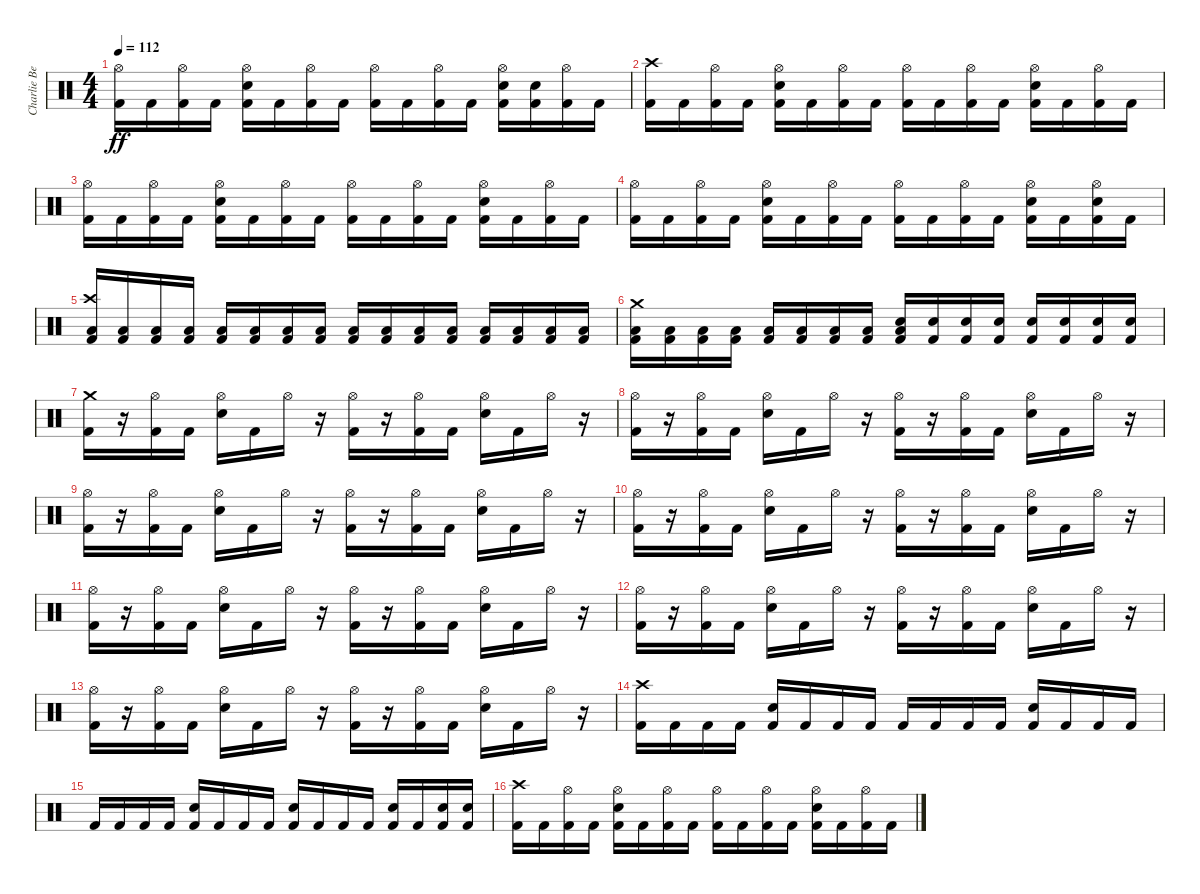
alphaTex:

\track ("Charlie Benante" "Charlie Be") {instrument percussion}
\staff {score}
\articulation defaults
\ts (4 4)
\tempo 112
\clef neutral
\ks c
("Hi-Hat (open)" "Kick (hit) 2").16{dy ff} "Kick (hit) 2".16 ("Hi-Hat (open)" "Kick (hit) 2").16 "Kick (hit) 2".16 ("Hi-Hat (open)" "Snare (hit) 2" "Kick (hit) 2").16 "Kick (hit) 2".16 ("Hi-Hat (open)" "Kick (hit) 2").16 "Kick (hit) 2".16 ("Hi-Hat (open)" "Kick (hit) 2").16 "Kick (hit) 2".16 ("Hi-Hat (open)" "Kick (hit) 2").16 "Kick (hit) 2".16 ("Hi-Hat (open)" "Snare (hit) 2" "Kick (hit) 2").16 ("Snare (hit) 2" "Kick (hit) 2").16 ("Hi-Hat (open)" "Kick (hit) 2").16 "Kick (hit) 2".16 |
("Crash high (hit)" "Kick (hit) 2").16 "Kick (hit) 2".16 ("Hi-Hat (open)" "Kick (hit) 2").16 "Kick (hit) 2".16 ("Hi-Hat (open)" "Snare (hit) 2" "Kick (hit) 2").16 "Kick (hit) 2".16 ("Hi-Hat (open)" "Kick (hit) 2").16 "Kick (hit) 2".16 ("Hi-Hat (open)" "Kick (hit) 2").16 "Kick (hit) 2".16 ("Hi-Hat (open)" "Kick (hit) 2").16 "Kick (hit) 2".16 ("Hi-Hat (open)" "Snare (hit) 2" "Kick (hit) 2").16 "Kick (hit) 2".16 ("Hi-Hat (open)" "Kick (hit) 2").16 "Kick (hit) 2".16 |
("Hi-Hat (open)" "Kick (hit) 2").16 "Kick (hit) 2".16 ("Hi-Hat (open)" "Kick (hit) 2").16 "Kick (hit) 2".16 ("Hi-Hat (open)" "Snare (hit) 2" "Kick (hit) 2").16 "Kick (hit) 2".16 ("Hi-Hat (open)" "Kick (hit) 2").16 "Kick (hit) 2".16 ("Hi-Hat (open)" "Kick (hit) 2").16 "Kick (hit) 2".16 ("Hi-Hat (open)" "Kick (hit) 2").16 "Kick (hit) 2".16 ("Hi-Hat (open)" "Snare (hit) 2" "Kick (hit) 2").16 "Kick (hit) 2".16 ("Hi-Hat (open)" "Kick (hit) 2").16 "Kick (hit) 2".16 |
("Hi-Hat (open)" "Kick (hit) 2").16 "Kick (hit) 2".16 ("Hi-Hat (open)" "Kick (hit) 2").16 "Kick (hit) 2".16 ("Hi-Hat (open)" "Snare (hit) 2" "Kick (hit) 2").16 "Kick (hit) 2".16 ("Hi-Hat (open)" "Kick (hit) 2").16 "Kick (hit) 2".16 ("Hi-Hat (open)" "Kick (hit) 2").16 "Kick (hit) 2".16 ("Hi-Hat (open)" "Kick (hit) 2").16 "Kick (hit) 2".16 ("Hi-Hat (open)" "Snare (hit) 2" "Kick (hit) 2").16 "Kick (hit) 2".16 ("Hi-Hat (open)" "Snare (hit) 2" "Kick (hit) 2").16 "Kick (hit) 2".16 |
("Crash high (hit)" "Kick (hit) 2" "Low Floor Tom (hit)").16 ("Kick (hit) 2" "Low Floor Tom (hit)").16 ("Kick (hit) 2" "Low Floor Tom (hit)").16 ("Kick (hit) 2" "Low Floor Tom (hit)").16 ("Kick (hit) 2" "Low Floor Tom (hit)").16 ("Kick (hit) 2" "Low Floor Tom (hit)").16 ("Kick (hit) 2" "Low Floor Tom (hit)").16 ("Kick (hit) 2" "Low Floor Tom (hit)").16 ("Kick (hit) 2" "Low Floor Tom (hit)").16 ("Kick (hit) 2" "Low Floor Tom (hit)").16 ("Kick (hit) 2" "Low Floor Tom (hit)").16 ("Kick (hit) 2" "Low Floor Tom (hit)").16 ("Kick (hit) 2" "Low Floor Tom (hit)").16 ("Kick (hit) 2" "Low Floor Tom (hit)").16 ("Kick (hit) 2" "Low Floor Tom (hit)").16 ("Kick (hit) 2" "Low Floor Tom (hit)").16 |
("Crash medium (hit)" "Kick (hit) 2" "Low Floor Tom (hit)").16 ("Kick (hit) 2" "Low Floor Tom (hit)").16 ("Kick (hit) 2" "Low Floor Tom (hit)").16 ("Kick (hit) 2" "Low Floor Tom (hit)").16 ("Kick (hit) 2" "Low Floor Tom (hit)").16 ("Kick (hit) 2" "Low Floor Tom (hit)").16 ("Kick (hit) 2" "Low Floor Tom (hit)").16 ("Kick (hit) 2" "Low Floor Tom (hit)").16 ("Snare (hit) 2" "Kick (hit) 2" "Low Floor Tom (hit)").16 ("Snare (hit) 2" "Kick (hit) 2").16 ("Snare (hit) 2" "Kick (hit) 2").16 ("Snare (hit) 2" "Kick (hit) 2").16 ("Snare (hit) 2" "Kick (hit) 2").16 ("Snare (hit) 2" "Kick (hit) 2").16 ("Snare (hit) 2" "Kick (hit) 2").16 ("Snare (hit) 2" "Kick (hit) 2").16 |
("Crash medium (hit)" "Kick (hit) 2").16 r.16 ("Hi-Hat (open)" "Kick (hit) 2").16 "Kick (hit) 2".16 ("Hi-Hat (open)" "Snare (hit) 2").16 "Kick (hit) 2".16 "Hi-Hat (open)".16 r.16 ("Hi-Hat (open)" "Kick (hit) 2").16 r.16 ("Hi-Hat (open)" "Kick (hit) 2").16 "Kick (hit) 2".16 ("Hi-Hat (open)" "Snare (hit) 2").16 "Kick (hit) 2".16 "Hi-Hat (open)".16 r.16 |
("Hi-Hat (open)" "Kick (hit) 2").16 r.16 ("Hi-Hat (open)" "Kick (hit) 2").16 "Kick (hit) 2".16 ("Hi-Hat (open)" "Snare (hit) 2").16 "Kick (hit) 2".16 "Hi-Hat (open)".16 r.16 ("Hi-Hat (open)" "Kick (hit) 2").16 r.16 ("Hi-Hat (open)" "Kick (hit) 2").16 "Kick (hit) 2".16 ("Hi-Hat (open)" "Snare (hit) 2").16 "Kick (hit) 2".16 "Hi-Hat (open)".16 r.16 |
("Hi-Hat (open)" "Kick (hit) 2").16 r.16 ("Hi-Hat (open)" "Kick (hit) 2").16 "Kick (hit) 2".16 ("Hi-Hat (open)" "Snare (hit) 2").16 "Kick (hit) 2".16 "Hi-Hat (open)".16 r.16 ("Hi-Hat (open)" "Kick (hit) 2").16 r.16 ("Hi-Hat (open)" "Kick (hit) 2").16 "Kick (hit) 2".16 ("Hi-Hat (open)" "Snare (hit) 2").16 "Kick (hit) 2".16 "Hi-Hat (open)".16 r.16 |
("Hi-Hat (open)" "Kick (hit) 2").16 r.16 ("Hi-Hat (open)" "Kick (hit) 2").16 "Kick (hit) 2".16 ("Hi-Hat (open)" "Snare (hit) 2").16 "Kick (hit) 2".16 "Hi-Hat (open)".16 r.16 ("Hi-Hat (open)" "Kick (hit) 2").16 r.16 ("Hi-Hat (open)" "Kick (hit) 2").16 "Kick (hit) 2".16 ("Hi-Hat (open)" "Snare (hit) 2").16 "Kick (hit) 2".16 "Hi-Hat (open)".16 r.16 |
("Hi-Hat (open)" "Kick (hit) 2").16 r.16 ("Hi-Hat (open)" "Kick (hit) 2").16 "Kick (hit) 2".16 ("Hi-Hat (open)" "Snare (hit) 2").16 "Kick (hit) 2".16 "Hi-Hat (open)".16 r.16 ("Hi-Hat (open)" "Kick (hit) 2").16 r.16 ("Hi-Hat (open)" "Kick (hit) 2").16 "Kick (hit) 2".16 ("Hi-Hat (open)" "Snare (hit) 2").16 "Kick (hit) 2".16 "Hi-Hat (open)".16 r.16 |
("Hi-Hat (open)" "Kick (hit) 2").16 r.16 ("Hi-Hat (open)" "Kick (hit) 2").16 "Kick (hit) 2".16 ("Hi-Hat (open)" "Snare (hit) 2").16 "Kick (hit) 2".16 "Hi-Hat (open)".16 r.16 ("Hi-Hat (open)" "Kick (hit) 2").16 r.16 ("Hi-Hat (open)" "Kick (hit) 2").16 "Kick (hit) 2".16 ("Hi-Hat (open)" "Snare (hit) 2").16 "Kick (hit) 2".16 "Hi-Hat (open)".16 r.16 |
("Hi-Hat (open)" "Kick (hit) 2").16 r.16 ("Hi-Hat (open)" "Kick (hit) 2").16 "Kick (hit) 2".16 ("Hi-Hat (open)" "Snare (hit) 2").16 "Kick (hit) 2".16 "Hi-Hat (open)".16 r.16 ("Hi-Hat (open)" "Kick (hit) 2").16 r.16 ("Hi-Hat (open)" "Kick (hit) 2").16 "Kick (hit) 2".16 ("Hi-Hat (open)" "Snare (hit) 2").16 "Kick (hit) 2".16 "Hi-Hat (open)".16 r.16 |
("Crash high (hit)" "Kick (hit) 2").16 "Kick (hit) 2".16 "Kick (hit) 2".16 "Kick (hit) 2".16 ("Snare (hit) 2" "Kick (hit) 2").16 "Kick (hit) 2".16 "Kick (hit) 2".16 "Kick (hit) 2".16 "Kick (hit) 2".16 "Kick (hit) 2".16 "Kick (hit) 2".16 "Kick (hit) 2".16 ("Snare (hit) 2" "Kick (hit) 2").16 "Kick (hit) 2".16 "Kick (hit) 2".16 "Kick (hit) 2".16 |
"Kick (hit) 2".16 "Kick (hit) 2".16 "Kick (hit) 2".16 "Kick (hit) 2".16 ("Snare (hit) 2" "Kick (hit) 2").16 "Kick (hit) 2".16 "Kick (hit) 2".16 "Kick (hit) 2".16 ("Snare (hit) 2" "Kick (hit) 2").16 "Kick (hit) 2".16 "Kick (hit) 2".16 "Kick (hit) 2".16 ("Snare (hit) 2" "Kick (hit) 2").16 "Kick (hit) 2".16 ("Snare (hit) 2" "Kick (hit) 2").16 ("Snare (hit) 2" "Kick (hit) 2").16 |
("Crash high (hit)" "Kick (hit) 2").16 "Kick (hit) 2".16 ("Hi-Hat (open)" "Kick (hit) 2").16 "Kick (hit) 2".16 ("Hi-Hat (open)" "Snare (hit) 2" "Kick (hit) 2").16 "Kick (hit) 2".16 ("Hi-Hat (open)" "Kick (hit) 2").16 "Kick (hit) 2".16 ("Hi-Hat (open)" "Kick (hit) 2").16 "Kick (hit) 2".16 ("Hi-Hat (open)" "Kick (hit) 2").16 "Kick (hit) 2".16 ("Hi-Hat (open)" "Snare (hit) 2" "Kick (hit) 2").16 "Kick (hit) 2".16 ("Hi-Hat (open)" "Kick (hit) 2").16 "Kick (hit) 2".16
